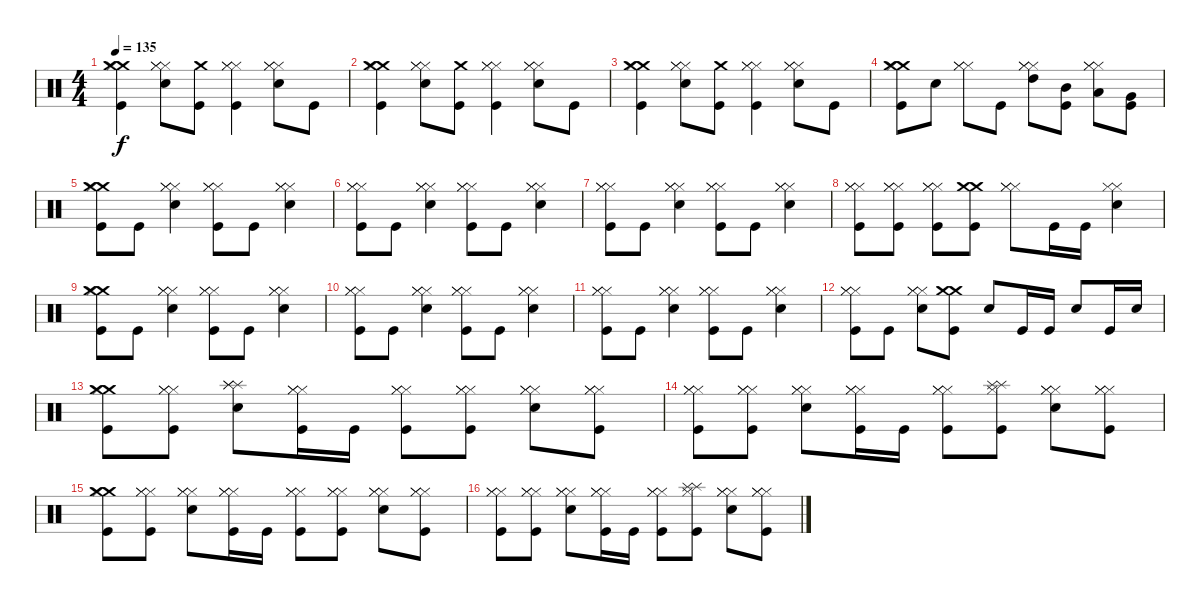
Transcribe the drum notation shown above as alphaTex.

\track "" {instrument percussion}
\staff {score}
\articulation defaults
\ts (4 4)
\tempo 135
\clef neutral
\ks c
("Crash medium (hit)" "Crash medium (hit)" "Hi-Hat (closed)" "Kick (hit)").4{dy f} ("Hi-Hat (closed)" "Hi-Hat (closed)" "Hi-Hat (closed)" "Metronome (bell)").8 ("Crash medium (hit)" "Kick (hit)").8 ("Hi-Hat (closed)" "Hi-Hat (closed)" "Hi-Hat (closed)" "Kick (hit)").4 ("Hi-Hat (closed)" "Hi-Hat (closed)" "Hi-Hat (closed)" "Metronome (bell)").8 "Kick (hit)".8 |
("Crash medium (hit)" "Crash medium (hit)" "Hi-Hat (closed)" "Kick (hit)").4 ("Hi-Hat (closed)" "Hi-Hat (closed)" "Hi-Hat (closed)" "Metronome (bell)").8 ("Crash medium (hit)" "Kick (hit)").8 ("Hi-Hat (closed)" "Hi-Hat (closed)" "Hi-Hat (closed)" "Kick (hit)").4 ("Hi-Hat (closed)" "Hi-Hat (closed)" "Hi-Hat (closed)" "Metronome (bell)").8 "Kick (hit)".8 |
("Crash medium (hit)" "Crash medium (hit)" "Hi-Hat (closed)" "Kick (hit)").4 ("Hi-Hat (closed)" "Hi-Hat (closed)" "Hi-Hat (closed)" "Metronome (bell)").8 ("Crash medium (hit)" "Kick (hit)").8 ("Hi-Hat (closed)" "Hi-Hat (closed)" "Hi-Hat (closed)" "Kick (hit)").4 ("Hi-Hat (closed)" "Hi-Hat (closed)" "Hi-Hat (closed)" "Metronome (bell)").8 "Kick (hit)".8 |
("Crash medium (hit)" "Crash medium (hit)" "Hi-Hat (closed)" "Kick (hit)").8 "Metronome (bell)".8 ("Hi-Hat (closed)" "Hi-Hat (closed)" "Hi-Hat (closed)").8 "Kick (hit)".8 ("Hi-Hat (closed)" "Hi-Hat (closed)" "Hi-Hat (closed)" "High Tom (hit)").8 ("Mid Tom (hit)" "Kick (hit)").8 ("Hi-Hat (closed)" "Hi-Hat (closed)" "Hi-Hat (closed)" "Low Tom (hit)").8 ("Very Low Tom (hit)" "Kick (hit)").8 |
("Crash medium (hit)" "Crash medium (hit)" "Hi-Hat (closed)" "Kick (hit)").8 "Kick (hit)".8 ("Hi-Hat (closed)" "Hi-Hat (closed)" "Hi-Hat (closed)" "Metronome (bell)").4 ("Hi-Hat (closed)" "Hi-Hat (closed)" "Hi-Hat (closed)" "Kick (hit)").8 "Kick (hit)".8 ("Hi-Hat (closed)" "Hi-Hat (closed)" "Hi-Hat (closed)" "Metronome (bell)").4 |
("Hi-Hat (closed)" "Hi-Hat (closed)" "Hi-Hat (closed)" "Kick (hit)").8 "Kick (hit)".8 ("Hi-Hat (closed)" "Hi-Hat (closed)" "Hi-Hat (closed)" "Metronome (bell)").4 ("Hi-Hat (closed)" "Hi-Hat (closed)" "Hi-Hat (closed)" "Kick (hit)").8 "Kick (hit)".8 ("Hi-Hat (closed)" "Hi-Hat (closed)" "Hi-Hat (closed)" "Metronome (bell)").4 |
("Hi-Hat (closed)" "Hi-Hat (closed)" "Hi-Hat (closed)" "Kick (hit)").8 "Kick (hit)".8 ("Hi-Hat (closed)" "Hi-Hat (closed)" "Hi-Hat (closed)" "Metronome (bell)").4 ("Hi-Hat (closed)" "Hi-Hat (closed)" "Hi-Hat (closed)" "Kick (hit)").8 "Kick (hit)".8 ("Hi-Hat (closed)" "Hi-Hat (closed)" "Hi-Hat (closed)" "Metronome (bell)").4 |
("Hi-Hat (closed)" "Hi-Hat (closed)" "Hi-Hat (closed)" "Kick (hit)").8 ("Hi-Hat (closed)" "Hi-Hat (closed)" "Hi-Hat (closed)" "Kick (hit)").8 ("Hi-Hat (closed)" "Hi-Hat (closed)" "Hi-Hat (closed)" "Kick (hit)").8 ("Crash medium (hit)" "Crash medium (hit)" "Kick (hit)").8 ("Hi-Hat (closed)" "Hi-Hat (closed)" "Hi-Hat (closed)").8 "Kick (hit)".16 "Kick (hit)".16 ("Hi-Hat (closed)" "Hi-Hat (closed)" "Metronome (bell)").4 |
("Crash medium (hit)" "Crash medium (hit)" "Hi-Hat (closed)" "Kick (hit)").8 "Kick (hit)".8 ("Hi-Hat (closed)" "Hi-Hat (closed)" "Hi-Hat (closed)" "Metronome (bell)").4 ("Hi-Hat (closed)" "Hi-Hat (closed)" "Hi-Hat (closed)" "Kick (hit)").8 "Kick (hit)".8 ("Hi-Hat (closed)" "Hi-Hat (closed)" "Hi-Hat (closed)" "Metronome (bell)").4 |
("Hi-Hat (closed)" "Hi-Hat (closed)" "Hi-Hat (closed)" "Kick (hit)").8 "Kick (hit)".8 ("Hi-Hat (closed)" "Hi-Hat (closed)" "Hi-Hat (closed)" "Metronome (bell)").4 ("Hi-Hat (closed)" "Hi-Hat (closed)" "Hi-Hat (closed)" "Kick (hit)").8 "Kick (hit)".8 ("Hi-Hat (closed)" "Hi-Hat (closed)" "Hi-Hat (closed)" "Metronome (bell)").4 |
("Hi-Hat (closed)" "Hi-Hat (closed)" "Hi-Hat (closed)" "Kick (hit)").8 "Kick (hit)".8 ("Hi-Hat (closed)" "Hi-Hat (closed)" "Hi-Hat (closed)" "Metronome (bell)").4 ("Hi-Hat (closed)" "Hi-Hat (closed)" "Hi-Hat (closed)" "Kick (hit)").8 "Kick (hit)".8 ("Hi-Hat (closed)" "Hi-Hat (closed)" "Hi-Hat (closed)" "Metronome (bell)").4 |
("Hi-Hat (closed)" "Hi-Hat (closed)" "Hi-Hat (closed)" "Kick (hit)").8 "Kick (hit)".8 ("Hi-Hat (closed)" "Hi-Hat (closed)" "Hi-Hat (closed)" "Metronome (bell)").8 ("Crash medium (hit)" "Crash medium (hit)" "Kick (hit)").8 "Metronome (bell)".8 "Kick (hit)".16 "Kick (hit)".16 "Metronome (bell)".8 "Kick (hit)".16 "Metronome (bell)".16 |
("Crash medium (hit)" "Crash medium (hit)" "Hi-Hat (closed)" "Kick (hit)").8 ("Hi-Hat (closed)" "Hi-Hat (closed)" "Hi-Hat (closed)" "Kick (hit)").8 ("Splash (hit)" "Splash (hit)" "Splash (hit)" "Metronome (bell)").8 ("Hi-Hat (closed)" "Hi-Hat (closed)" "Hi-Hat (closed)" "Kick (hit)").16 "Kick (hit)".16 ("Hi-Hat (closed)" "Hi-Hat (closed)" "Hi-Hat (closed)" "Kick (hit)").8 ("Hi-Hat (closed)" "Hi-Hat (closed)" "Hi-Hat (closed)" "Kick (hit)").8 ("Hi-Hat (closed)" "Hi-Hat (closed)" "Hi-Hat (closed)" "Metronome (bell)").8 ("Hi-Hat (closed)" "Hi-Hat (closed)" "Hi-Hat (closed)" "Kick (hit)").8 |
("Hi-Hat (closed)" "Hi-Hat (closed)" "Hi-Hat (closed)" "Kick (hit)").8 ("Hi-Hat (closed)" "Hi-Hat (closed)" "Hi-Hat (closed)" "Kick (hit)").8 ("Hi-Hat (closed)" "Hi-Hat (closed)" "Hi-Hat (closed)" "Metronome (bell)").8 ("Hi-Hat (closed)" "Hi-Hat (closed)" "Hi-Hat (closed)" "Kick (hit)").16 "Kick (hit)".16 ("Hi-Hat (closed)" "Hi-Hat (closed)" "Hi-Hat (closed)" "Kick (hit)").8 ("Splash (hit)" "Splash (hit)" "Hi-Hat (closed)" "Kick (hit)").8 ("Hi-Hat (closed)" "Hi-Hat (closed)" "Hi-Hat (closed)" "Metronome (bell)").8 ("Hi-Hat (closed)" "Hi-Hat (closed)" "Hi-Hat (closed)" "Kick (hit)").8 |
("Crash medium (hit)" "Crash medium (hit)" "Hi-Hat (closed)" "Kick (hit)").8 ("Hi-Hat (closed)" "Hi-Hat (closed)" "Hi-Hat (closed)" "Kick (hit)").8 ("Hi-Hat (closed)" "Hi-Hat (closed)" "Hi-Hat (closed)" "Metronome (bell)").8 ("Hi-Hat (closed)" "Hi-Hat (closed)" "Hi-Hat (closed)" "Kick (hit)").16 "Kick (hit)".16 ("Hi-Hat (closed)" "Hi-Hat (closed)" "Hi-Hat (closed)" "Kick (hit)").8 ("Hi-Hat (closed)" "Hi-Hat (closed)" "Hi-Hat (closed)" "Kick (hit)").8 ("Hi-Hat (closed)" "Hi-Hat (closed)" "Hi-Hat (closed)" "Metronome (bell)").8 ("Hi-Hat (closed)" "Hi-Hat (closed)" "Hi-Hat (closed)" "Kick (hit)").8 |
("Hi-Hat (closed)" "Hi-Hat (closed)" "Hi-Hat (closed)" "Kick (hit)").8 ("Hi-Hat (closed)" "Hi-Hat (closed)" "Hi-Hat (closed)" "Kick (hit)").8 ("Hi-Hat (closed)" "Hi-Hat (closed)" "Hi-Hat (closed)" "Metronome (bell)").8 ("Hi-Hat (closed)" "Hi-Hat (closed)" "Hi-Hat (closed)" "Kick (hit)").16 "Kick (hit)".16 ("Hi-Hat (closed)" "Hi-Hat (closed)" "Hi-Hat (closed)" "Kick (hit)").8 ("Splash (hit)" "Splash (hit)" "Hi-Hat (closed)" "Kick (hit)").8 ("Hi-Hat (closed)" "Hi-Hat (closed)" "Hi-Hat (closed)" "Metronome (bell)").8 ("Hi-Hat (closed)" "Hi-Hat (closed)" "Hi-Hat (closed)" "Kick (hit)").8
